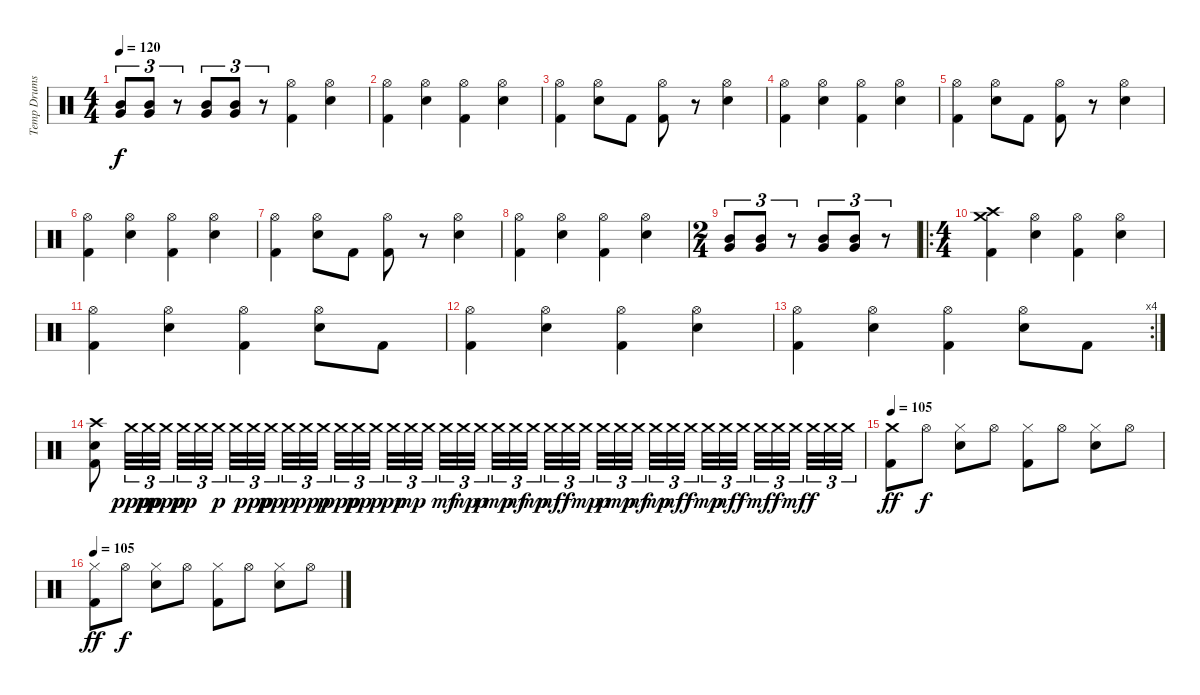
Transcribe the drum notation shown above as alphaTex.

\track ("Temp Drums (i dont know them!)" "Temp Drums") {instrument percussion}
\staff {score}
\articulation defaults
\ts (4 4)
\tempo 120
\clef neutral
\ks c
("Mid Tom (hit)" "Very Low Tom (hit)").8{tu (3 2) dy f} ("Mid Tom (hit)" "Very Low Tom (hit)").8{tu (3 2)} r.8{tu (3 2)} ("Mid Tom (hit)" "Very Low Tom (hit)").8{tu (3 2)} ("Mid Tom (hit)" "Very Low Tom (hit)").8{tu (3 2)} r.8{tu (3 2)} ("Hi-Hat (open)" "Kick (hit) 2").4 ("Hi-Hat (open)" "Snare (hit) 2").4 |
("Hi-Hat (open)" "Kick (hit) 2").4 ("Hi-Hat (open)" "Snare (hit) 2").4 ("Hi-Hat (open)" "Kick (hit) 2").4 ("Hi-Hat (open)" "Snare (hit) 2").4 |
("Hi-Hat (open)" "Kick (hit) 2").4 ("Hi-Hat (open)" "Snare (hit) 2").8 "Kick (hit) 2".8 ("Hi-Hat (open)" "Kick (hit) 2").8 r.8 ("Hi-Hat (open)" "Snare (hit) 2").4 |
("Hi-Hat (open)" "Kick (hit) 2").4 ("Hi-Hat (open)" "Snare (hit) 2").4 ("Hi-Hat (open)" "Kick (hit) 2").4 ("Hi-Hat (open)" "Snare (hit) 2").4 |
("Hi-Hat (open)" "Kick (hit) 2").4 ("Hi-Hat (open)" "Snare (hit) 2").8 "Kick (hit) 2".8 ("Hi-Hat (open)" "Kick (hit) 2").8 r.8 ("Hi-Hat (open)" "Snare (hit) 2").4 |
("Hi-Hat (open)" "Kick (hit) 2").4 ("Hi-Hat (open)" "Snare (hit) 2").4 ("Hi-Hat (open)" "Kick (hit) 2").4 ("Hi-Hat (open)" "Snare (hit) 2").4 |
("Hi-Hat (open)" "Kick (hit) 2").4 ("Hi-Hat (open)" "Snare (hit) 2").8 "Kick (hit) 2".8 ("Hi-Hat (open)" "Kick (hit) 2").8 r.8 ("Hi-Hat (open)" "Snare (hit) 2").4 |
("Hi-Hat (open)" "Kick (hit) 2").4 ("Hi-Hat (open)" "Snare (hit) 2").4 ("Hi-Hat (open)" "Kick (hit) 2").4 ("Hi-Hat (open)" "Snare (hit) 2").4 |
\ts (2 4)
("Mid Tom (hit)" "Very Low Tom (hit)").8{tu (3 2)} ("Mid Tom (hit)" "Very Low Tom (hit)").8{tu (3 2)} r.8{tu (3 2)} ("Mid Tom (hit)" "Very Low Tom (hit)").8{tu (3 2)} ("Mid Tom (hit)" "Very Low Tom (hit)").8{tu (3 2)} r.8{tu (3 2)} |
\ro
\ts (4 4)
("Crash medium (hit)" "Crash high (hit)" "Kick (hit) 2").4 ("Hi-Hat (open)" "Snare (hit) 2").4 ("Hi-Hat (open)" "Kick (hit) 2").4 ("Hi-Hat (open)" "Snare (hit) 2").4 |
("Hi-Hat (open)" "Kick (hit) 2").4 ("Hi-Hat (open)" "Snare (hit) 2").4 ("Hi-Hat (open)" "Kick (hit) 2").4 ("Hi-Hat (open)" "Snare (hit) 2").8 "Kick (hit) 2".8 |
("Hi-Hat (open)" "Kick (hit) 2").4 ("Hi-Hat (open)" "Snare (hit) 2").4 ("Hi-Hat (open)" "Kick (hit) 2").4 ("Hi-Hat (open)" "Snare (hit) 2").4 |
\rc 4
("Hi-Hat (open)" "Kick (hit) 2").4 ("Hi-Hat (open)" "Snare (hit) 2").4 ("Hi-Hat (open)" "Kick (hit) 2").4 ("Hi-Hat (open)" "Snare (hit) 2").8 "Kick (hit) 2".8 |
("Crash high (hit)" "Snare (hit) 2" "Kick (hit) 2").8 "Crash medium (hit)".32{tu (3 2) dy ppp} "Crash medium (hit)".32{tu (3 2) dy pp} "Crash medium (hit)".32{tu (3 2) dy ppp} "Crash medium (hit)".32{tu (3 2) dy pp} "Crash medium (hit)".32{tu (3 2)} "Crash medium (hit)".32{tu (3 2) dy p} "Crash medium (hit)".32{tu (3 2)} "Crash medium (hit)".32{tu (3 2) dy ppp} "Crash medium (hit)".32{tu (3 2) dy pp} "Crash medium (hit)".32{tu (3 2) dy p} "Crash medium (hit)".32{tu (3 2) dy pp} "Crash medium (hit)".32{tu (3 2) dy p} "Crash medium (hit)".32{tu (3 2) dy ppp} "Crash medium (hit)".32{tu (3 2) dy pp} "Crash medium (hit)".32{tu (3 2) dy p} "Crash medium (hit)".32{tu (3 2) dy pp} "Crash medium (hit)".32{tu (3 2) dy mp} "Crash medium (hit)".32{tu (3 2)} "Crash medium (hit)".32{tu (3 2) dy mf} "Crash medium (hit)".32{tu (3 2) dy mp} "Crash medium (hit)".32{tu (3 2) dy p} "Crash medium (hit)".32{tu (3 2) dy mp} "Crash medium (hit)".32{tu (3 2) dy mf} "Crash medium (hit)".32{tu (3 2) dy mp} "Crash medium (hit)".32{tu (3 2) dy mf} "Crash medium (hit)".32{tu (3 2) dy f} "Crash medium (hit)".32{tu (3 2) dy mp} "Crash medium (hit)".32{tu (3 2) dy p} "Crash medium (hit)".32{tu (3 2) dy mp} "Crash medium (hit)".32{tu (3 2) dy mf} "Crash medium (hit)".32{tu (3 2) dy mp} "Crash medium (hit)".32{tu (3 2) dy mf} "Crash medium (hit)".32{tu (3 2) dy f} "Crash medium (hit)".32{tu (3 2) dy mp} "Crash medium (hit)".32{tu (3 2) dy mf} "Crash medium (hit)".32{tu (3 2) dy f} "Crash medium (hit)".32{tu (3 2) dy mf} "Crash medium (hit)".32{tu (3 2) dy f} "Crash medium (hit)".32{tu (3 2) dy mf} "Crash medium (hit)".32{tu (3 2) dy f} "Crash medium (hit)".32{tu (3 2)} "Crash medium (hit)".32{tu (3 2)} |
\tempo 105
("Crash medium (hit)" "Kick (hit) 2").8{dy ff} "Hi-Hat (open)".8{dy f} ("Hi-Hat (closed)" "Snare (hit) 2").8 "Hi-Hat (open)".8 ("Hi-Hat (closed)" "Kick (hit) 2").8 "Hi-Hat (open)".8 ("Hi-Hat (closed)" "Snare (hit) 2").8 "Hi-Hat (open)".8 |
\tempo 105
("Hi-Hat (closed)" "Kick (hit) 2").8{dy ff} "Hi-Hat (open)".8{dy f} ("Hi-Hat (closed)" "Snare (hit) 2").8 "Hi-Hat (open)".8 ("Hi-Hat (closed)" "Kick (hit) 2").8 "Hi-Hat (open)".8 ("Hi-Hat (closed)" "Snare (hit) 2").8 "Hi-Hat (open)".8
